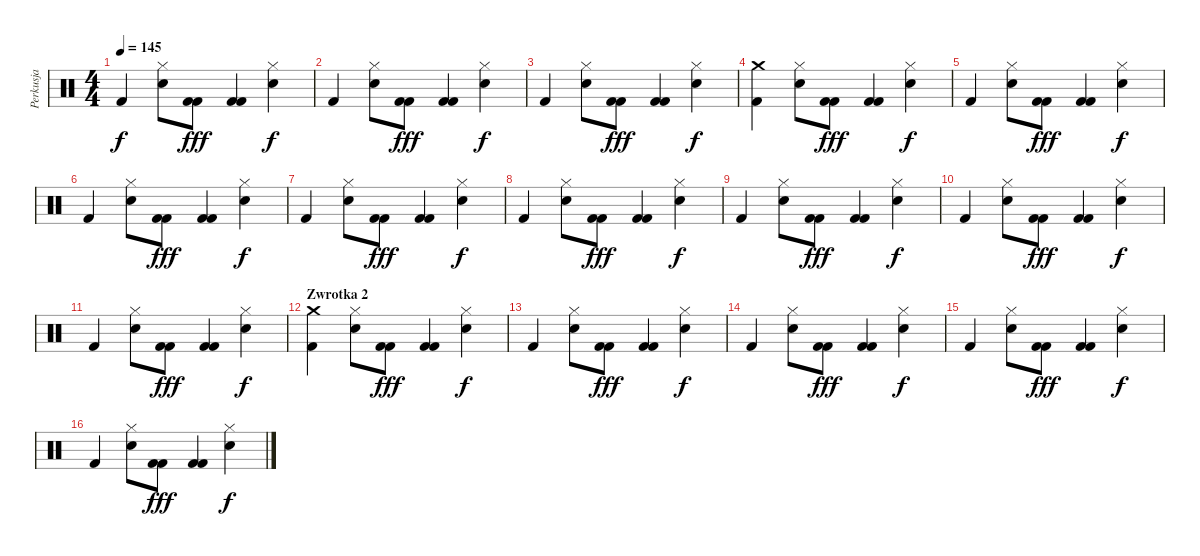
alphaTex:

\track ("Perkusja" "Perkusja") {instrument percussion}
\staff {score}
\articulation defaults
\ts (4 4)
\tempo 145
\clef neutral
\ks c "Kick (hit) 2".4{dy f}
("Hi-Hat (closed)" "Snare (hit) 2").8 ("Kick (hit) 2" "Kick (hit) 2").8{dy fff} ("Kick (hit) 2" "Kick (hit) 2").4 ("Hi-Hat (closed)" "Snare (hit) 2").4{dy f} |
"Kick (hit) 2".4 ("Hi-Hat (closed)" "Snare (hit) 2").8 ("Kick (hit) 2" "Kick (hit) 2").8{dy fff} ("Kick (hit) 2" "Kick (hit) 2").4 ("Hi-Hat (closed)" "Snare (hit) 2").4{dy f} |
"Kick (hit) 2".4 ("Hi-Hat (closed)" "Snare (hit) 2").8 ("Kick (hit) 2" "Kick (hit) 2").8{dy fff} ("Kick (hit) 2" "Kick (hit) 2").4 ("Hi-Hat (closed)" "Snare (hit) 2").4{dy f} |
("Kick (hit) 2" "Crash medium (hit)").4 ("Hi-Hat (closed)" "Snare (hit) 2").8 ("Kick (hit) 2" "Kick (hit) 2").8{dy fff} ("Kick (hit) 2" "Kick (hit) 2").4 ("Hi-Hat (closed)" "Snare (hit) 2").4{dy f} |
"Kick (hit) 2".4 ("Hi-Hat (closed)" "Snare (hit) 2").8 ("Kick (hit) 2" "Kick (hit) 2").8{dy fff} ("Kick (hit) 2" "Kick (hit) 2").4 ("Hi-Hat (closed)" "Snare (hit) 2").4{dy f} |
"Kick (hit) 2".4 ("Hi-Hat (closed)" "Snare (hit) 2").8 ("Kick (hit) 2" "Kick (hit) 2").8{dy fff} ("Kick (hit) 2" "Kick (hit) 2").4 ("Hi-Hat (closed)" "Snare (hit) 2").4{dy f} |
"Kick (hit) 2".4 ("Hi-Hat (closed)" "Snare (hit) 2").8 ("Kick (hit) 2" "Kick (hit) 2").8{dy fff} ("Kick (hit) 2" "Kick (hit) 2").4 ("Hi-Hat (closed)" "Snare (hit) 2").4{dy f} |
"Kick (hit) 2".4 ("Hi-Hat (closed)" "Snare (hit) 2").8 ("Kick (hit) 2" "Kick (hit) 2").8{dy fff} ("Kick (hit) 2" "Kick (hit) 2").4 ("Hi-Hat (closed)" "Snare (hit) 2").4{dy f} |
"Kick (hit) 2".4 ("Hi-Hat (closed)" "Snare (hit) 2").8 ("Kick (hit) 2" "Kick (hit) 2").8{dy fff} ("Kick (hit) 2" "Kick (hit) 2").4 ("Hi-Hat (closed)" "Snare (hit) 2").4{dy f} |
"Kick (hit) 2".4 ("Hi-Hat (closed)" "Snare (hit) 2").8 ("Kick (hit) 2" "Kick (hit) 2").8{dy fff} ("Kick (hit) 2" "Kick (hit) 2").4 ("Hi-Hat (closed)" "Snare (hit) 2").4{dy f} |
"Kick (hit) 2".4 ("Hi-Hat (closed)" "Snare (hit) 2").8 ("Kick (hit) 2" "Kick (hit) 2").8{dy fff} ("Kick (hit) 2" "Kick (hit) 2").4 ("Hi-Hat (closed)" "Snare (hit) 2").4{dy f} |
\section ("" "Zwrotka 2")
("Kick (hit) 2" "Crash medium (hit)").4 ("Hi-Hat (closed)" "Snare (hit) 2").8 ("Kick (hit) 2" "Kick (hit) 2").8{dy fff} ("Kick (hit) 2" "Kick (hit) 2").4 ("Hi-Hat (closed)" "Snare (hit) 2").4{dy f} |
"Kick (hit) 2".4 ("Hi-Hat (closed)" "Snare (hit) 2").8 ("Kick (hit) 2" "Kick (hit) 2").8{dy fff} ("Kick (hit) 2" "Kick (hit) 2").4 ("Hi-Hat (closed)" "Snare (hit) 2").4{dy f} |
"Kick (hit) 2".4 ("Hi-Hat (closed)" "Snare (hit) 2").8 ("Kick (hit) 2" "Kick (hit) 2").8{dy fff} ("Kick (hit) 2" "Kick (hit) 2").4 ("Hi-Hat (closed)" "Snare (hit) 2").4{dy f} |
"Kick (hit) 2".4 ("Hi-Hat (closed)" "Snare (hit) 2").8 ("Kick (hit) 2" "Kick (hit) 2").8{dy fff} ("Kick (hit) 2" "Kick (hit) 2").4 ("Hi-Hat (closed)" "Snare (hit) 2").4{dy f} |
"Kick (hit) 2".4 ("Hi-Hat (closed)" "Snare (hit) 2").8 ("Kick (hit) 2" "Kick (hit) 2").8{dy fff} ("Kick (hit) 2" "Kick (hit) 2").4 ("Hi-Hat (closed)" "Snare (hit) 2").4{dy f}
